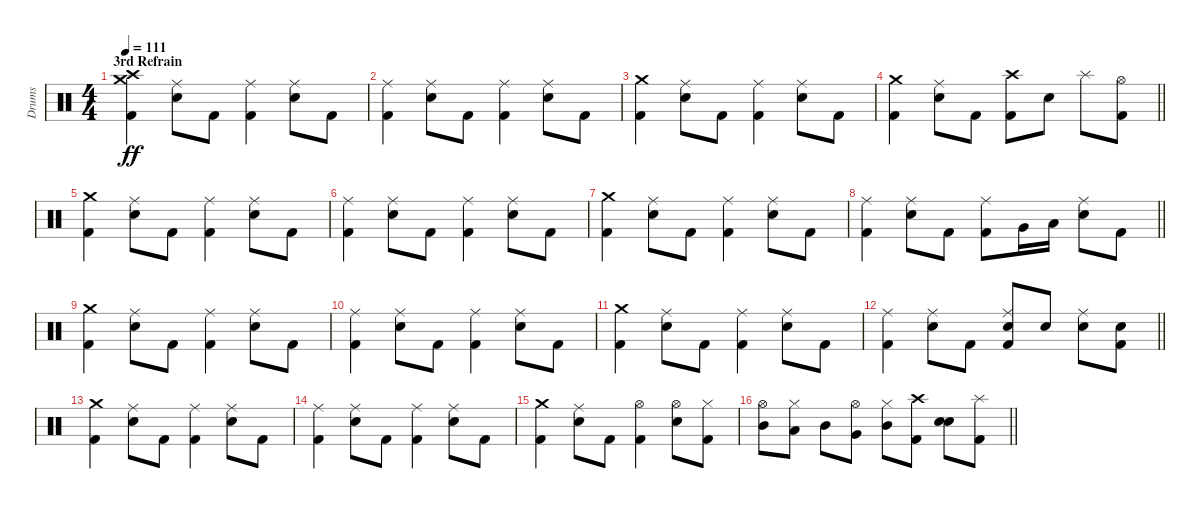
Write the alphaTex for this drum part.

\track ("Drums" "Drums") {instrument percussion}
\staff {score}
\articulation defaults
\ts (4 4)
\section ("" "3rd Refrain")
\tempo 111
\clef neutral
\ks c
("Crash medium (hit)" "Crash high (hit)" "Kick (hit) 2").4{dy ff} ("Ride (middle)" "Electric Snare (hit)").8 "Kick (hit) 2".8 ("Ride (middle)" "Kick (hit) 2").4 ("Ride (middle)" "Electric Snare (hit)").8 "Kick (hit) 2".8 |
("Ride (middle)" "Kick (hit) 2").4 ("Ride (middle)" "Electric Snare (hit)").8 "Kick (hit) 2".8 ("Ride (middle)" "Kick (hit) 2").4 ("Ride (middle)" "Electric Snare (hit)").8 "Kick (hit) 2".8 |
("Crash medium (hit)" "Kick (hit) 2").4 ("Ride (middle)" "Electric Snare (hit)").8 "Kick (hit) 2".8 ("Ride (middle)" "Kick (hit) 2").4 ("Ride (middle)" "Electric Snare (hit)").8 "Kick (hit) 2".8 |
\barLineRight lightlight
("Crash medium (hit)" "Kick (hit) 2").4 ("Ride (middle)" "Electric Snare (hit)").8 "Kick (hit) 2".8 ("Crash high (hit)" "Kick (hit) 2").8 "Electric Snare (hit)".8 "Splash (hit)".8 ("Hi-Hat (open)" "Kick (hit) 2").8 |
("Crash medium (hit)" "Kick (hit) 2").4 ("Ride (middle)" "Electric Snare (hit)").8 "Kick (hit) 2".8 ("Ride (middle)" "Kick (hit) 2").4 ("Ride (middle)" "Electric Snare (hit)").8 "Kick (hit) 2".8 |
("Ride (middle)" "Kick (hit) 2").4 ("Ride (middle)" "Electric Snare (hit)").8 "Kick (hit) 2".8 ("Ride (middle)" "Kick (hit) 2").4 ("Ride (middle)" "Electric Snare (hit)").8 "Kick (hit) 2".8 |
("Crash medium (hit)" "Kick (hit) 2").4 ("Ride (middle)" "Electric Snare (hit)").8 "Kick (hit) 2".8 ("Ride (middle)" "Kick (hit) 2").4 ("Ride (middle)" "Electric Snare (hit)").8 "Kick (hit) 2".8 |
\barLineRight lightlight
("Ride (middle)" "Kick (hit) 2").4 ("Ride (middle)" "Electric Snare (hit)").8 "Kick (hit) 2".8 ("Ride (middle)" "Kick (hit) 2").8 "Very Low Tom (hit)".16 "Low Tom (hit)".16 ("Ride (middle)" "Electric Snare (hit)").8 "Kick (hit) 2".8 |
("Crash medium (hit)" "Kick (hit) 2").4 ("Ride (middle)" "Electric Snare (hit)").8 "Kick (hit) 2".8 ("Ride (middle)" "Kick (hit) 2").4 ("Ride (middle)" "Electric Snare (hit)").8 "Kick (hit) 2".8 |
("Ride (middle)" "Kick (hit) 2").4 ("Ride (middle)" "Electric Snare (hit)").8 "Kick (hit) 2".8 ("Ride (middle)" "Kick (hit) 2").4 ("Ride (middle)" "Electric Snare (hit)").8 "Kick (hit) 2".8 |
("Crash medium (hit)" "Kick (hit) 2").4 ("Ride (middle)" "Electric Snare (hit)").8 "Kick (hit) 2".8 ("Ride (middle)" "Kick (hit) 2").4 ("Ride (middle)" "Electric Snare (hit)").8 "Kick (hit) 2".8 |
\barLineRight lightlight
("Ride (middle)" "Kick (hit) 2").4 ("Ride (middle)" "Electric Snare (hit)").8 "Kick (hit) 2".8 ("Ride (middle)" "Electric Snare (hit)" "Kick (hit) 2").8 "Electric Snare (hit)".8 ("Ride (middle)" "Electric Snare (hit)").8 ("Electric Snare (hit)" "Kick (hit) 2").8 |
("Crash medium (hit)" "Kick (hit) 2").4 ("Ride (middle)" "Electric Snare (hit)").8 "Kick (hit) 2".8 ("Ride (middle)" "Kick (hit) 2").4 ("Ride (middle)" "Electric Snare (hit)").8 "Kick (hit) 2".8 |
("Ride (middle)" "Kick (hit) 2").4 ("Ride (middle)" "Electric Snare (hit)").8 "Kick (hit) 2".8 ("Ride (middle)" "Kick (hit) 2").4 ("Ride (middle)" "Electric Snare (hit)").8 "Kick (hit) 2".8 |
("Crash medium (hit)" "Kick (hit) 2").4 ("Ride (middle)" "Electric Snare (hit)").8 "Kick (hit) 2".8 ("Hi-Hat (open)" "Kick (hit) 2").4 ("Hi-Hat (open)" "Electric Snare (hit)").8 ("Hi-Hat (closed)" "Kick (hit) 2").8 |
\barLineRight lightlight
("Hi-Hat (open)" "Mid Tom (hit)").8 ("Hi-Hat (closed)" "Low Tom (hit)").8 "Mid Tom (hit)".8 ("Hi-Hat (open)" "Very Low Tom (hit)").8 ("Hi-Hat (closed)" "Mid Tom (hit)").8 ("Crash high (hit)" "Kick (hit) 2").8 ("Electric Snare (hit)" "Electric Snare (hit)").8{bd 60} ("Splash (hit)" "Kick (hit) 2").8
